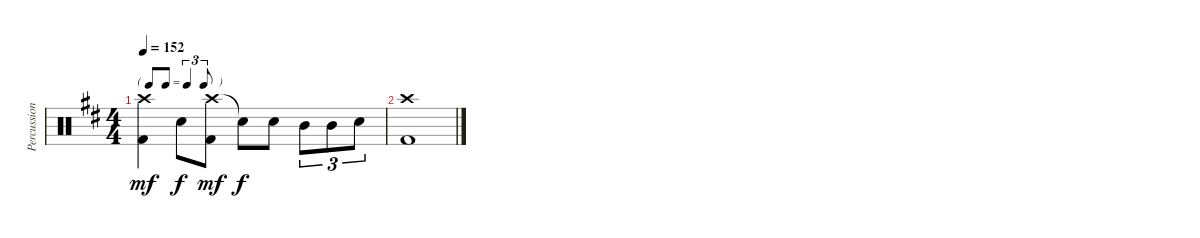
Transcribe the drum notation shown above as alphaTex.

\track ("Percussion" "Percussion") {instrument percussion}
\staff {score}
\articulation defaults
\ts (4 4)
\tf triplet8th
\tempo 152
\clef neutral
\ks d
("Crash high (hit)" "Kick (hit) 2").4{dy mf} "Snare (hit) 2".8{dy f} ("Crash high (hit)" "Kick (hit) 2").8{dy mf} "Snare (hit)"{t}.8{dy f} "Snare (hit) 2".8 "Mid Tom (hit)".8{tu (3 2)} "Mid Tom (hit)".8{tu (3 2)} "Snare (hit) 2".8{tu (3 2)} |
("Crash high (hit)" "Kick (hit) 2").1
